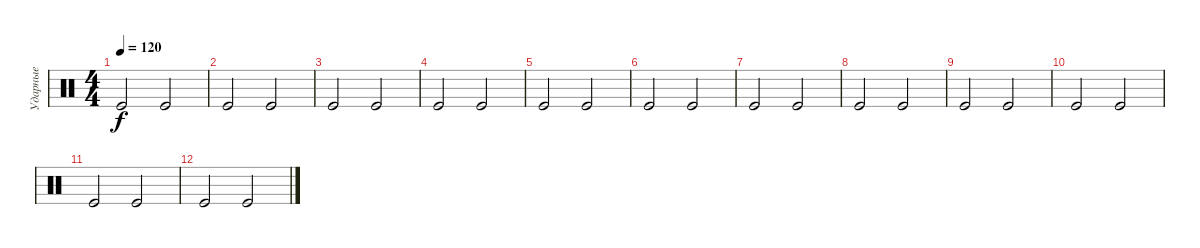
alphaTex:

\track ("Ударные" "Ударные") {instrument percussion}
\staff {score}
\articulation defaults
\ts (4 4)
\tempo 120
\clef neutral
\ks c "Kick (hit)".2{dy f} "Kick (hit)".2
|
"Kick (hit)".2 "Kick (hit)".2 |
"Kick (hit)".2 "Kick (hit)".2 |
"Kick (hit)".2 "Kick (hit)".2 |
"Kick (hit)".2 "Kick (hit)".2 |
"Kick (hit)".2 "Kick (hit)".2 |
"Kick (hit)".2 "Kick (hit)".2 |
"Kick (hit)".2 "Kick (hit)".2 |
"Kick (hit)".2 "Kick (hit)".2 |
"Kick (hit)".2 "Kick (hit)".2 |
"Kick (hit)".2 "Kick (hit)".2 |
"Kick (hit)".2 "Kick (hit)".2
